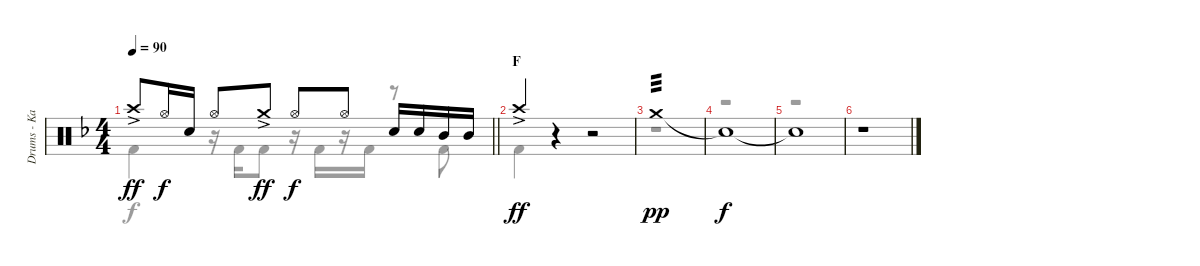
\track ("Drums - Kai" "Drums - Ka") {instrument percussion}
\staff {score}
\articulation defaults
\voice
\ts (4 4)
\tempo 90
\clef neutral
\barLineRight lightlight
\ks f "Crash high (hit)"{ac}.8{dy ff} "Hi-Hat (open)".16{dy f} "Snare (hit) 2".16 "Hi-Hat (open)".8 "Crash medium (hit)"{ac}.8{dy ff} "Hi-Hat (open)".8{dy f} "Hi-Hat (open)".8 "Snare (hit) 2".16 "Snare (hit) 2".16 "Mid Tom (hit)".16 "Mid Tom (hit)".16
|
\section ("" "F")
"Crash high (hit)"{ac}.4{dy ff} r.4 r.2 |
"Crash medium (hit)".1{tp 3 dy pp} |
"Snare (hit)"{t}.1{dy f} |
"Snare (hit)"{t}.1 |
r.1
\voice
\clef neutral
\ottava regular
\simile none
\barLineRight lightlight
\ks f "Kick (hit) 2".4{dy f}
r.16 "Kick (hit) 2".16 "Kick (hit) 2".8 r.16 "Kick (hit) 2".16 r.16 "Kick (hit) 2".16 r.8 "Kick (hit) 2".8 |
"Kick (hit) 2".4 r.4 r.2 |
r.1 |
r.1 |
r.1 |
r.1
